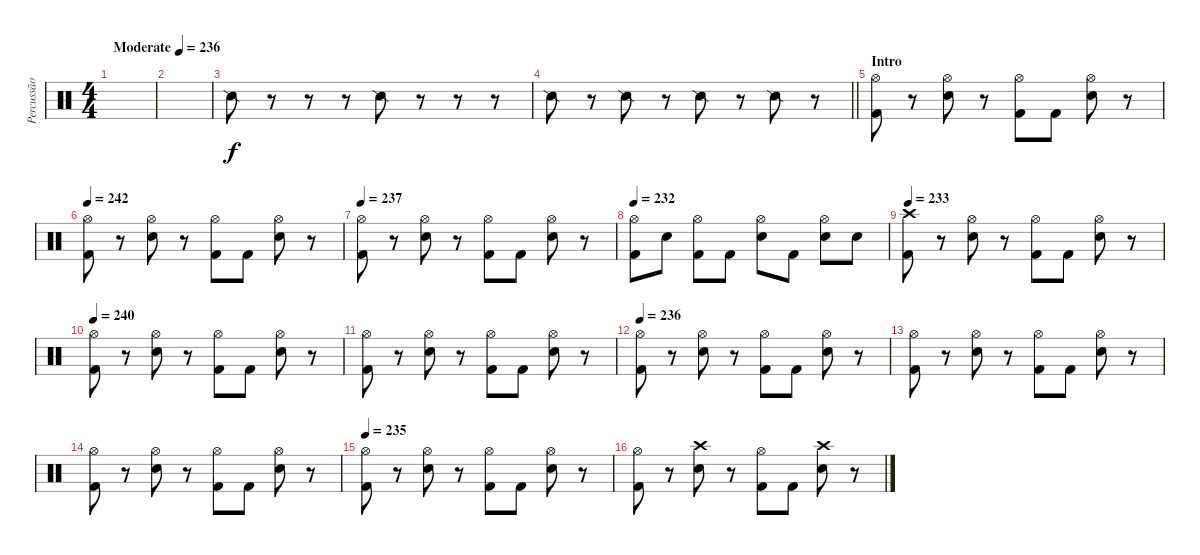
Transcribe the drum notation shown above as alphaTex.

\track ("Percussão" "Percussão") {instrument percussion}
\staff {score}
\articulation defaults
\ts (4 4)
\tempo (236 "Moderate")
\clef neutral
\ks c
|
|
"Snare (side stick) 2".8 r.8 r.8 r.8 "Snare (side stick) 2".8 r.8 r.8 r.8 |
\barLineRight lightlight "Snare (side stick) 2".8
r.8 "Snare (side stick) 2".8 r.8 "Snare (side stick) 2".8 r.8 "Snare (side stick) 2".8 r.8 |
\section ("" "Intro")
("Hi-Hat (open)" "Kick (hit) 2").8{dy f} r.8 ("Hi-Hat (open)" "Electric Snare (hit)").8 r.8 ("Hi-Hat (open)" "Kick (hit) 2").8 "Kick (hit) 2".8 ("Hi-Hat (open)" "Electric Snare (hit)").8 r.8 |
\tempo 242
("Hi-Hat (open)" "Kick (hit) 2").8 r.8 ("Hi-Hat (open)" "Electric Snare (hit)").8 r.8 ("Hi-Hat (open)" "Kick (hit) 2").8 "Kick (hit) 2".8 ("Hi-Hat (open)" "Electric Snare (hit)").8 r.8 |
\tempo 237
("Hi-Hat (open)" "Kick (hit) 2").8 r.8 ("Hi-Hat (open)" "Electric Snare (hit)").8 r.8 ("Hi-Hat (open)" "Kick (hit) 2").8 "Kick (hit) 2".8 ("Hi-Hat (open)" "Electric Snare (hit)").8 r.8 |
\tempo 232
("Hi-Hat (open)" "Kick (hit) 2").8 "Electric Snare (hit)".8 ("Hi-Hat (open)" "Kick (hit) 2").8 "Kick (hit) 2".8 ("Hi-Hat (open)" "Electric Snare (hit)").8 "Kick (hit) 2".8 ("Hi-Hat (open)" "Electric Snare (hit)").8 "Electric Snare (hit)".8 |
\tempo 233
("Crash high (hit)" "Kick (hit) 2").8 r.8 ("Hi-Hat (open)" "Electric Snare (hit)").8 r.8 ("Hi-Hat (open)" "Kick (hit) 2").8 "Kick (hit) 2".8 ("Hi-Hat (open)" "Electric Snare (hit)").8 r.8 |
\tempo 240
("Hi-Hat (open)" "Kick (hit) 2").8 r.8 ("Hi-Hat (open)" "Electric Snare (hit)").8 r.8 ("Hi-Hat (open)" "Kick (hit) 2").8 "Kick (hit) 2".8 ("Hi-Hat (open)" "Electric Snare (hit)").8 r.8 |
("Hi-Hat (open)" "Kick (hit) 2").8 r.8 ("Hi-Hat (open)" "Electric Snare (hit)").8 r.8 ("Hi-Hat (open)" "Kick (hit) 2").8 "Kick (hit) 2".8 ("Hi-Hat (open)" "Electric Snare (hit)").8 r.8 |
\tempo 236
("Hi-Hat (open)" "Kick (hit) 2").8 r.8 ("Hi-Hat (open)" "Electric Snare (hit)").8 r.8 ("Hi-Hat (open)" "Kick (hit) 2").8 "Kick (hit) 2".8 ("Hi-Hat (open)" "Electric Snare (hit)").8 r.8 |
("Hi-Hat (open)" "Kick (hit) 2").8 r.8 ("Hi-Hat (open)" "Electric Snare (hit)").8 r.8 ("Hi-Hat (open)" "Kick (hit) 2").8 "Kick (hit) 2".8 ("Hi-Hat (open)" "Electric Snare (hit)").8 r.8 |
("Hi-Hat (open)" "Kick (hit) 2").8 r.8 ("Hi-Hat (open)" "Electric Snare (hit)").8 r.8 ("Hi-Hat (open)" "Kick (hit) 2").8 "Kick (hit) 2".8 ("Hi-Hat (open)" "Electric Snare (hit)").8 r.8 |
\tempo 235
("Hi-Hat (open)" "Kick (hit) 2").8 r.8 ("Hi-Hat (open)" "Electric Snare (hit)").8 r.8 ("Hi-Hat (open)" "Kick (hit) 2").8 "Kick (hit) 2".8 ("Hi-Hat (open)" "Electric Snare (hit)").8 r.8 |
("Hi-Hat (open)" "Kick (hit) 2").8 r.8 ("Crash high (hit)" "Electric Snare (hit)").8 r.8 ("Hi-Hat (open)" "Kick (hit) 2").8 "Kick (hit) 2".8 ("Crash high (hit)" "Electric Snare (hit)").8 r.8
